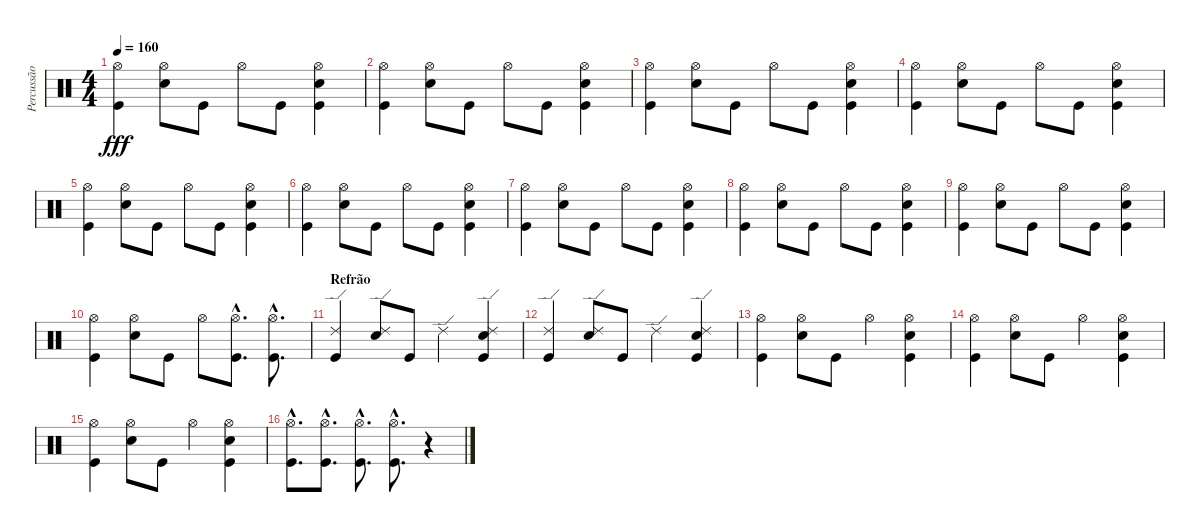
\track ("Percussão" "Percussão") {instrument percussion}
\staff {score}
\articulation defaults
\ts (4 4)
\tempo 160
\clef neutral
\ks c
("Hi-Hat (open)" "Kick (hit)").4{dy fff} ("Hi-Hat (open)" "Snare (hit) 2").8 "Kick (hit)".8 "Hi-Hat (open)".8 "Kick (hit)".8 ("Hi-Hat (open)" "Snare (hit) 2" "Kick (hit)").4 |
("Hi-Hat (open)" "Kick (hit)").4 ("Hi-Hat (open)" "Snare (hit) 2").8 "Kick (hit)".8 "Hi-Hat (open)".8 "Kick (hit)".8 ("Hi-Hat (open)" "Snare (hit) 2" "Kick (hit)").4 |
("Hi-Hat (open)" "Kick (hit)").4 ("Hi-Hat (open)" "Snare (hit) 2").8 "Kick (hit)".8 "Hi-Hat (open)".8 "Kick (hit)".8 ("Hi-Hat (open)" "Snare (hit) 2" "Kick (hit)").4 |
("Hi-Hat (open)" "Kick (hit)").4 ("Hi-Hat (open)" "Snare (hit) 2").8 "Kick (hit)".8 "Hi-Hat (open)".8 "Kick (hit)".8 ("Hi-Hat (open)" "Snare (hit) 2" "Kick (hit)").4 |
("Hi-Hat (open)" "Kick (hit)").4 ("Hi-Hat (open)" "Snare (hit) 2").8 "Kick (hit)".8 "Hi-Hat (open)".8 "Kick (hit)".8 ("Hi-Hat (open)" "Snare (hit) 2" "Kick (hit)").4 |
("Hi-Hat (open)" "Kick (hit)").4 ("Hi-Hat (open)" "Snare (hit) 2").8 "Kick (hit)".8 "Hi-Hat (open)".8 "Kick (hit)".8 ("Hi-Hat (open)" "Snare (hit) 2" "Kick (hit)").4 |
("Hi-Hat (open)" "Kick (hit)").4 ("Hi-Hat (open)" "Snare (hit) 2").8 "Kick (hit)".8 "Hi-Hat (open)".8 "Kick (hit)".8 ("Hi-Hat (open)" "Snare (hit) 2" "Kick (hit)").4 |
("Hi-Hat (open)" "Kick (hit)").4 ("Hi-Hat (open)" "Snare (hit) 2").8 "Kick (hit)".8 "Hi-Hat (open)".8 "Kick (hit)".8 ("Hi-Hat (open)" "Snare (hit) 2" "Kick (hit)").4 |
("Hi-Hat (open)" "Kick (hit)").4 ("Hi-Hat (open)" "Snare (hit) 2").8 "Kick (hit)".8 "Hi-Hat (open)".8 "Kick (hit)".8 ("Hi-Hat (open)" "Snare (hit) 2" "Kick (hit)").4 |
("Hi-Hat (open)" "Kick (hit)").4 ("Hi-Hat (open)" "Snare (hit) 2").8 "Kick (hit)".8 "Hi-Hat (open)".8 ("Hi-Hat (open)"{hac} "Kick (hit)"{hac}).8{d} ("Hi-Hat (open)"{hac} "Kick (hit)"{hac}).8{d} |
\section ("" "Refrão")
("Ride (edge) 2" "Kick (hit)").4 ("Ride (edge) 2" "Snare (hit) 2").8 "Kick (hit)".8 "Ride (edge) 2".4 ("Ride (edge) 2" "Snare (hit) 2" "Kick (hit)").4 |
("Ride (edge) 2" "Kick (hit)").4 ("Ride (edge) 2" "Snare (hit) 2").8 "Kick (hit)".8 "Ride (edge) 2".4 ("Ride (edge) 2" "Snare (hit) 2" "Kick (hit)").4 |
("Hi-Hat (open)" "Kick (hit)").4 ("Hi-Hat (open)" "Snare (hit) 2").8 "Kick (hit)".8 "Hi-Hat (open)".4 ("Hi-Hat (open)" "Snare (hit) 2" "Kick (hit)").4 |
("Hi-Hat (open)" "Kick (hit)").4 ("Hi-Hat (open)" "Snare (hit) 2").8 "Kick (hit)".8 "Hi-Hat (open)".4 ("Hi-Hat (open)" "Snare (hit) 2" "Kick (hit)").4 |
("Hi-Hat (open)" "Kick (hit)").4 ("Hi-Hat (open)" "Snare (hit) 2").8 "Kick (hit)".8 "Hi-Hat (open)".4 ("Hi-Hat (open)" "Snare (hit) 2" "Kick (hit)").4 |
("Hi-Hat (open)"{hac} "Kick (hit)"{hac}).8{d} ("Hi-Hat (open)"{hac} "Kick (hit)"{hac}).8{d} ("Hi-Hat (open)"{hac} "Kick (hit)"{hac}).8{d} ("Hi-Hat (open)"{hac} "Kick (hit)"{hac}).8{d} r.4
